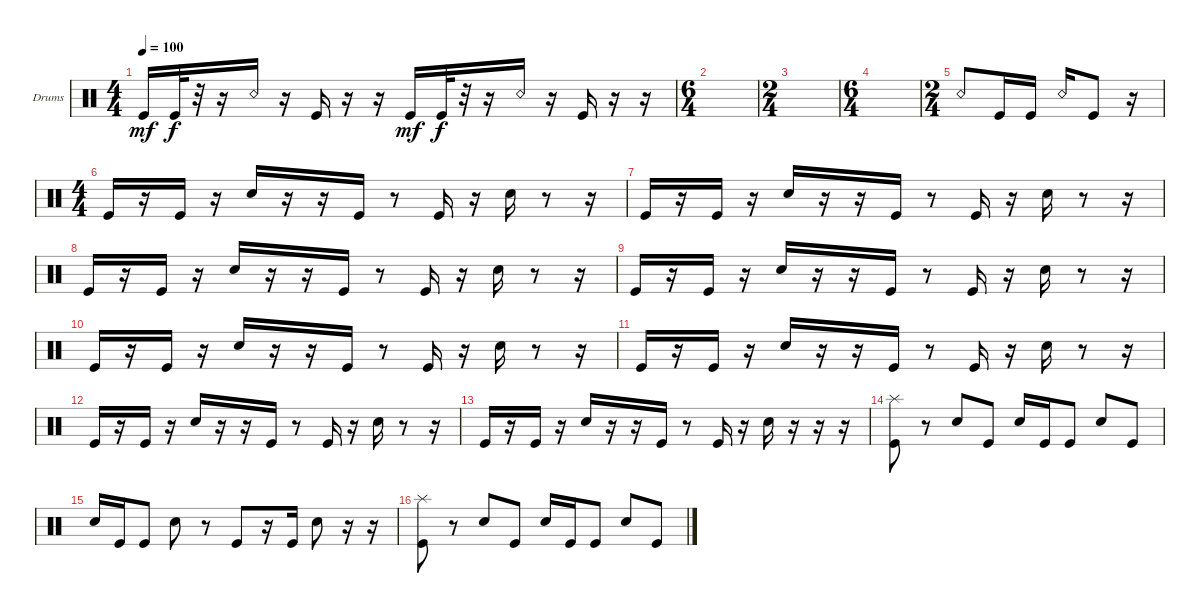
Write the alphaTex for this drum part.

\bracketExtendMode groupsimilarinstruments
\firstSystemTrackNameOrientation horizontal
\otherSystemsTrackNameOrientation horizontal
\track ("Drumkit" "Drums") {instrument percussion}
\staff {score}
\articulation defaults
\ts (4 4)
\tempo 100
\clef neutral
\scale
0.333333
\ks c "Kick (hit)".16{dy mf} "Kick (hit)".32{dy f}
r.32 r.16 "Snare (rim shot)".16 r.16 "Kick (hit)".16 r.16 r.16 "Kick (hit)".16{dy mf} "Kick (hit)".32{dy f} r.32 r.16 "Snare (rim shot)".16 r.16 "Kick (hit)".16 r.16 r.16 |
\ts (6 4)
\scale
0.333333 |
\ts (2 4)
\scale
0.333333 |
\ts (6 4)
\scale
0.333333 |
\ts (2 4)
\scale
0.391473 "Snare (rim shot)".8 "Kick (hit)".16 "Kick (hit)".16 "Snare (rim shot)".16 "Kick (hit)".8 r.16 |
\ts (4 4)
\scale
0.391473 "Kick (hit)".16 r.16 "Kick (hit)".16 r.16 "Snare (hit) 2".16 r.16 r.16 "Kick (hit)".16 r.8 "Kick (hit)".16 r.16 "Snare (hit) 2".16 r.8 r.16 |
\scale
0.217054 "Kick (hit)".16 r.16 "Kick (hit)".16 r.16 "Snare (hit) 2".16 r.16 r.16 "Kick (hit)".16 r.8 "Kick (hit)".16 r.16 "Snare (hit) 2".16 r.8 r.16 |
\scale
0.333333 "Kick (hit)".16 r.16 "Kick (hit)".16 r.16 "Snare (hit) 2".16 r.16 r.16 "Kick (hit)".16 r.8 "Kick (hit)".16 r.16 "Snare (hit) 2".16 r.8 r.16 |
\scale
0.333333 "Kick (hit)".16 r.16 "Kick (hit)".16 r.16 "Snare (hit) 2".16 r.16 r.16 "Kick (hit)".16 r.8 "Kick (hit)".16 r.16 "Snare (hit) 2".16 r.8 r.16 |
\scale
0.333333 "Kick (hit)".16 r.16 "Kick (hit)".16 r.16 "Snare (hit) 2".16 r.16 r.16 "Kick (hit)".16 r.8 "Kick (hit)".16 r.16 "Snare (hit) 2".16 r.8 r.16 |
\scale
0.333333 "Kick (hit)".16 r.16 "Kick (hit)".16 r.16 "Snare (hit) 2".16 r.16 r.16 "Kick (hit)".16 r.8 "Kick (hit)".16 r.16 "Snare (hit) 2".16 r.8 r.16 |
\scale
0.333333 "Kick (hit)".16 r.16 "Kick (hit)".16 r.16 "Snare (hit) 2".16 r.16 r.16 "Kick (hit)".16 r.8 "Kick (hit)".16 r.16 "Snare (hit) 2".16 r.8 r.16 |
\scale
0.333333 "Kick (hit)".16 r.16 "Kick (hit)".16 r.16 "Snare (hit) 2".16 r.16 r.16 "Kick (hit)".16 r.8 "Kick (hit)".16 r.16 "Snare (hit) 2".16 r.16 r.16 r.16 |
\scale
0.333333 ("Kick (hit)" "Splash (hit)").8 r.8 "Snare (hit) 2".8 "Kick (hit)".8 "Snare (hit) 2".16 "Kick (hit)".16 "Kick (hit)".8 "Snare (hit) 2".8 "Kick (hit)".8 |
"Snare (hit) 2".16 "Kick (hit)".16 "Kick (hit)".8 "Snare (hit) 2".8 r.8 "Kick (hit)".8 r.16 "Kick (hit)".16 "Snare (hit) 2".8 r.16 r.16 |
\scale
0.333333 ("Kick (hit)" "Splash (hit)").8 r.8 "Snare (hit) 2".8 "Kick (hit)".8 "Snare (hit) 2".16 "Kick (hit)".16 "Kick (hit)".8 "Snare (hit) 2".8 "Kick (hit)".8
